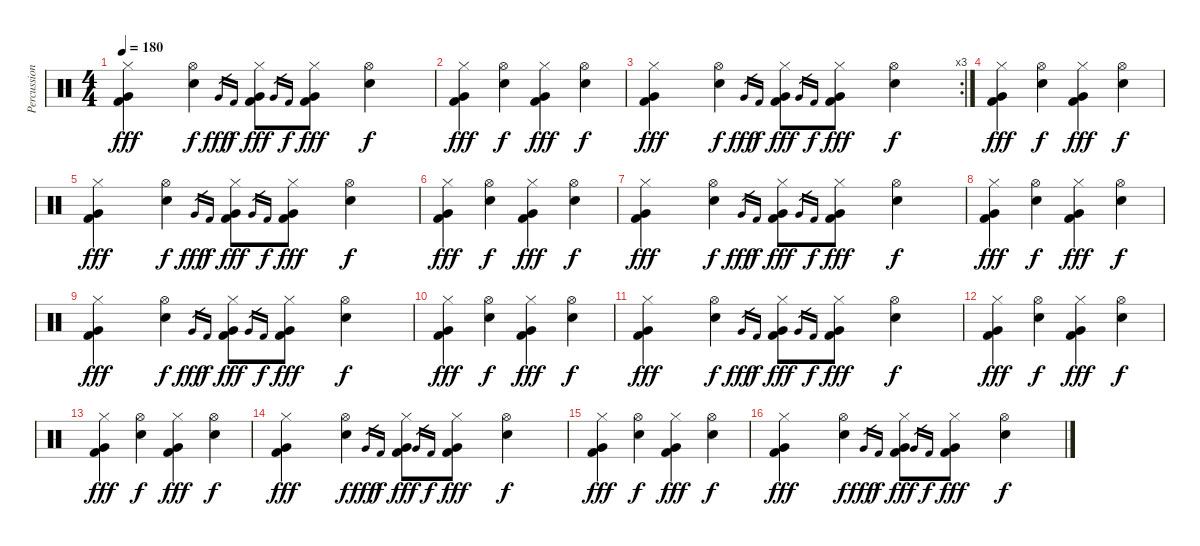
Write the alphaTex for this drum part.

\track ("Percussion" "Percussion") {instrument percussion}
\staff {score}
\articulation defaults
\ts (4 4)
\tempo 180
\clef neutral
\ks c
("Hi-Hat (closed)" "Very Low Tom (hit)" "Kick (hit) 2").4{dy fff} ("Hi-Hat (open)" "Electric Snare (hit)").4{dy f} "Very Low Tom (hit)".16{gr dy fff} "Kick (hit) 2".16{gr dy f} ("Hi-Hat (closed)" "Very Low Tom (hit)" "Kick (hit) 2").8{dy fff} "Very Low Tom (hit)".16{gr} "Kick (hit) 2".16{gr dy f} ("Hi-Hat (closed)" "Very Low Tom (hit)" "Kick (hit) 2").8{dy fff} ("Hi-Hat (open)" "Electric Snare (hit)").4{dy f} |
("Hi-Hat (closed)" "Very Low Tom (hit)" "Kick (hit) 2").4{dy fff} ("Hi-Hat (open)" "Electric Snare (hit)").4{dy f} ("Hi-Hat (closed)" "Very Low Tom (hit)" "Kick (hit) 2").4{dy fff} ("Hi-Hat (open)" "Electric Snare (hit)").4{dy f} |
\rc 3
("Hi-Hat (closed)" "Very Low Tom (hit)" "Kick (hit) 2").4{dy fff} ("Hi-Hat (open)" "Electric Snare (hit)").4{dy f} "Very Low Tom (hit)".16{gr dy fff} "Kick (hit) 2".16{gr dy f} ("Hi-Hat (closed)" "Very Low Tom (hit)" "Kick (hit) 2").8{dy fff} "Very Low Tom (hit)".16{gr} "Kick (hit) 2".16{gr dy f} ("Hi-Hat (closed)" "Very Low Tom (hit)" "Kick (hit) 2").8{dy fff} ("Hi-Hat (open)" "Electric Snare (hit)").4{dy f} |
("Hi-Hat (closed)" "Very Low Tom (hit)" "Kick (hit) 2").4{dy fff} ("Hi-Hat (open)" "Electric Snare (hit)").4{dy f} ("Hi-Hat (closed)" "Very Low Tom (hit)" "Kick (hit) 2").4{dy fff} ("Hi-Hat (open)" "Electric Snare (hit)").4{dy f} |
("Hi-Hat (closed)" "Very Low Tom (hit)" "Kick (hit) 2").4{dy fff} ("Hi-Hat (open)" "Electric Snare (hit)").4{dy f} "Very Low Tom (hit)".16{gr dy fff} "Kick (hit) 2".16{gr dy f} ("Hi-Hat (closed)" "Very Low Tom (hit)" "Kick (hit) 2").8{dy fff} "Very Low Tom (hit)".16{gr} "Kick (hit) 2".16{gr dy f} ("Hi-Hat (closed)" "Very Low Tom (hit)" "Kick (hit) 2").8{dy fff} ("Hi-Hat (open)" "Electric Snare (hit)").4{dy f} |
("Hi-Hat (closed)" "Very Low Tom (hit)" "Kick (hit) 2").4{dy fff} ("Hi-Hat (open)" "Electric Snare (hit)").4{dy f} ("Hi-Hat (closed)" "Very Low Tom (hit)" "Kick (hit) 2").4{dy fff} ("Hi-Hat (open)" "Electric Snare (hit)").4{dy f} |
("Hi-Hat (closed)" "Very Low Tom (hit)" "Kick (hit) 2").4{dy fff} ("Hi-Hat (open)" "Electric Snare (hit)").4{dy f} "Very Low Tom (hit)".16{gr dy fff} "Kick (hit) 2".16{gr dy f} ("Hi-Hat (closed)" "Very Low Tom (hit)" "Kick (hit) 2").8{dy fff} "Very Low Tom (hit)".16{gr} "Kick (hit) 2".16{gr dy f} ("Hi-Hat (closed)" "Very Low Tom (hit)" "Kick (hit) 2").8{dy fff} ("Hi-Hat (open)" "Electric Snare (hit)").4{dy f} |
("Hi-Hat (closed)" "Very Low Tom (hit)" "Kick (hit) 2").4{dy fff} ("Hi-Hat (open)" "Electric Snare (hit)").4{dy f} ("Hi-Hat (closed)" "Very Low Tom (hit)" "Kick (hit) 2").4{dy fff} ("Hi-Hat (open)" "Electric Snare (hit)").4{dy f} |
("Hi-Hat (closed)" "Very Low Tom (hit)" "Kick (hit) 2").4{dy fff} ("Hi-Hat (open)" "Electric Snare (hit)").4{dy f} "Very Low Tom (hit)".16{gr dy fff} "Kick (hit) 2".16{gr dy f} ("Hi-Hat (closed)" "Very Low Tom (hit)" "Kick (hit) 2").8{dy fff} "Very Low Tom (hit)".16{gr} "Kick (hit) 2".16{gr dy f} ("Hi-Hat (closed)" "Very Low Tom (hit)" "Kick (hit) 2").8{dy fff} ("Hi-Hat (open)" "Electric Snare (hit)").4{dy f} |
("Hi-Hat (closed)" "Very Low Tom (hit)" "Kick (hit) 2").4{dy fff} ("Hi-Hat (open)" "Electric Snare (hit)").4{dy f} ("Hi-Hat (closed)" "Very Low Tom (hit)" "Kick (hit) 2").4{dy fff} ("Hi-Hat (open)" "Electric Snare (hit)").4{dy f} |
("Hi-Hat (closed)" "Very Low Tom (hit)" "Kick (hit) 2").4{dy fff} ("Hi-Hat (open)" "Electric Snare (hit)").4{dy f} "Very Low Tom (hit)".16{gr dy fff} "Kick (hit) 2".16{gr dy f} ("Hi-Hat (closed)" "Very Low Tom (hit)" "Kick (hit) 2").8{dy fff} "Very Low Tom (hit)".16{gr} "Kick (hit) 2".16{gr dy f} ("Hi-Hat (closed)" "Very Low Tom (hit)" "Kick (hit) 2").8{dy fff} ("Hi-Hat (open)" "Electric Snare (hit)").4{dy f} |
("Hi-Hat (closed)" "Very Low Tom (hit)" "Kick (hit) 2").4{dy fff} ("Hi-Hat (open)" "Electric Snare (hit)").4{dy f} ("Hi-Hat (closed)" "Very Low Tom (hit)" "Kick (hit) 2").4{dy fff} ("Hi-Hat (open)" "Electric Snare (hit)").4{dy f} |
("Hi-Hat (closed)" "Very Low Tom (hit)" "Kick (hit) 2").4{dy fff} ("Hi-Hat (open)" "Electric Snare (hit)").4{dy f} ("Hi-Hat (closed)" "Very Low Tom (hit)" "Kick (hit) 2").4{dy fff} ("Hi-Hat (open)" "Electric Snare (hit)").4{dy f} |
("Hi-Hat (closed)" "Very Low Tom (hit)" "Kick (hit) 2").4{dy fff} ("Hi-Hat (open)" "Electric Snare (hit)").4{dy f} "Very Low Tom (hit)".16{gr dy fff} "Kick (hit) 2".16{gr dy f} ("Hi-Hat (closed)" "Very Low Tom (hit)" "Kick (hit) 2").8{dy fff} "Very Low Tom (hit)".16{gr} "Kick (hit) 2".16{gr dy f} ("Hi-Hat (closed)" "Very Low Tom (hit)" "Kick (hit) 2").8{dy fff} ("Hi-Hat (open)" "Electric Snare (hit)").4{dy f} |
("Hi-Hat (closed)" "Very Low Tom (hit)" "Kick (hit) 2").4{dy fff} ("Hi-Hat (open)" "Electric Snare (hit)").4{dy f} ("Hi-Hat (closed)" "Very Low Tom (hit)" "Kick (hit) 2").4{dy fff} ("Hi-Hat (open)" "Electric Snare (hit)").4{dy f} |
("Hi-Hat (closed)" "Very Low Tom (hit)" "Kick (hit) 2").4{dy fff} ("Hi-Hat (open)" "Electric Snare (hit)").4{dy f} "Very Low Tom (hit)".16{gr dy fff} "Kick (hit) 2".16{gr dy f} ("Hi-Hat (closed)" "Very Low Tom (hit)" "Kick (hit) 2").8{dy fff} "Very Low Tom (hit)".16{gr} "Kick (hit) 2".16{gr dy f} ("Hi-Hat (closed)" "Very Low Tom (hit)" "Kick (hit) 2").8{dy fff} ("Hi-Hat (open)" "Electric Snare (hit)").4{dy f}
